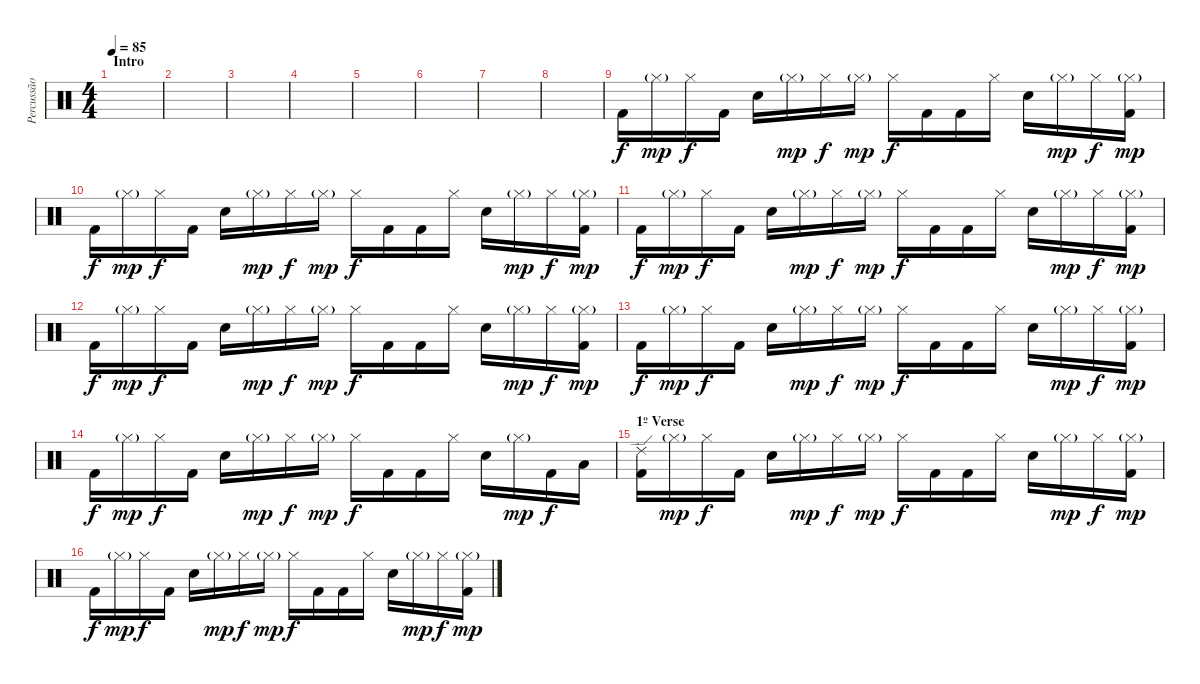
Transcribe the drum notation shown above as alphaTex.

\track ("Percussão" "Percussão") {instrument percussion}
\staff {score}
\articulation defaults
\ts (4 4)
\section ("" "Intro")
\tempo 85
\clef neutral
\ks c
|
|
|
|
|
|
|
|
"Kick (hit) 2".16 "Hi-Hat (closed)"{g}.16{dy mp} "Hi-Hat (closed)".16{dy f} "Kick (hit) 2".16 "Electric Snare (hit)".16 "Hi-Hat (closed)"{g}.16{dy mp} "Hi-Hat (closed)".16{dy f} "Hi-Hat (closed)"{g}.16{dy mp} "Hi-Hat (closed)".16{dy f} "Kick (hit) 2".16 "Kick (hit) 2".16 "Hi-Hat (closed)".16 "Electric Snare (hit)".16 "Hi-Hat (closed)"{g}.16{dy mp} "Hi-Hat (closed)".16{dy f} ("Hi-Hat (closed)"{g} "Kick (hit) 2").16{dy mp} |
"Kick (hit) 2".16{dy f} "Hi-Hat (closed)"{g}.16{dy mp} "Hi-Hat (closed)".16{dy f} "Kick (hit) 2".16 "Electric Snare (hit)".16 "Hi-Hat (closed)"{g}.16{dy mp} "Hi-Hat (closed)".16{dy f} "Hi-Hat (closed)"{g}.16{dy mp} "Hi-Hat (closed)".16{dy f} "Kick (hit) 2".16 "Kick (hit) 2".16 "Hi-Hat (closed)".16 "Electric Snare (hit)".16 "Hi-Hat (closed)"{g}.16{dy mp} "Hi-Hat (closed)".16{dy f} ("Hi-Hat (closed)"{g} "Kick (hit) 2").16{dy mp} |
"Kick (hit) 2".16{dy f} "Hi-Hat (closed)"{g}.16{dy mp} "Hi-Hat (closed)".16{dy f} "Kick (hit) 2".16 "Electric Snare (hit)".16 "Hi-Hat (closed)"{g}.16{dy mp} "Hi-Hat (closed)".16{dy f} "Hi-Hat (closed)"{g}.16{dy mp} "Hi-Hat (closed)".16{dy f} "Kick (hit) 2".16 "Kick (hit) 2".16 "Hi-Hat (closed)".16 "Electric Snare (hit)".16 "Hi-Hat (closed)"{g}.16{dy mp} "Hi-Hat (closed)".16{dy f} ("Hi-Hat (closed)"{g} "Kick (hit) 2").16{dy mp} |
"Kick (hit) 2".16{dy f} "Hi-Hat (closed)"{g}.16{dy mp} "Hi-Hat (closed)".16{dy f} "Kick (hit) 2".16 "Electric Snare (hit)".16 "Hi-Hat (closed)"{g}.16{dy mp} "Hi-Hat (closed)".16{dy f} "Hi-Hat (closed)"{g}.16{dy mp} "Hi-Hat (closed)".16{dy f} "Kick (hit) 2".16 "Kick (hit) 2".16 "Hi-Hat (closed)".16 "Electric Snare (hit)".16 "Hi-Hat (closed)"{g}.16{dy mp} "Hi-Hat (closed)".16{dy f} ("Hi-Hat (closed)"{g} "Kick (hit) 2").16{dy mp} |
"Kick (hit) 2".16{dy f} "Hi-Hat (closed)"{g}.16{dy mp} "Hi-Hat (closed)".16{dy f} "Kick (hit) 2".16 "Electric Snare (hit)".16 "Hi-Hat (closed)"{g}.16{dy mp} "Hi-Hat (closed)".16{dy f} "Hi-Hat (closed)"{g}.16{dy mp} "Hi-Hat (closed)".16{dy f} "Kick (hit) 2".16 "Kick (hit) 2".16 "Hi-Hat (closed)".16 "Electric Snare (hit)".16 "Hi-Hat (closed)"{g}.16{dy mp} "Hi-Hat (closed)".16{dy f} ("Hi-Hat (closed)"{g} "Kick (hit) 2").16{dy mp} |
"Kick (hit) 2".16{dy f} "Hi-Hat (closed)"{g}.16{dy mp} "Hi-Hat (closed)".16{dy f} "Kick (hit) 2".16 "Electric Snare (hit)".16 "Hi-Hat (closed)"{g}.16{dy mp} "Hi-Hat (closed)".16{dy f} "Hi-Hat (closed)"{g}.16{dy mp} "Hi-Hat (closed)".16{dy f} "Kick (hit) 2".16 "Kick (hit) 2".16 "Hi-Hat (closed)".16 "Electric Snare (hit)".16 "Hi-Hat (closed)"{g}.16{dy mp} "Kick (hit) 2".16{dy f} "Low Tom (hit)".16 |
\section ("" "1º Verse")
("Ride (edge) 2" "Kick (hit) 2").16 "Hi-Hat (closed)"{g}.16{dy mp} "Hi-Hat (closed)".16{dy f} "Kick (hit) 2".16 "Electric Snare (hit)".16 "Hi-Hat (closed)"{g}.16{dy mp} "Hi-Hat (closed)".16{dy f} "Hi-Hat (closed)"{g}.16{dy mp} "Hi-Hat (closed)".16{dy f} "Kick (hit) 2".16 "Kick (hit) 2".16 "Hi-Hat (closed)".16 "Electric Snare (hit)".16 "Hi-Hat (closed)"{g}.16{dy mp} "Hi-Hat (closed)".16{dy f} ("Hi-Hat (closed)"{g} "Kick (hit) 2").16{dy mp} |
"Kick (hit) 2".16{dy f} "Hi-Hat (closed)"{g}.16{dy mp} "Hi-Hat (closed)".16{dy f} "Kick (hit) 2".16 "Electric Snare (hit)".16 "Hi-Hat (closed)"{g}.16{dy mp} "Hi-Hat (closed)".16{dy f} "Hi-Hat (closed)"{g}.16{dy mp} "Hi-Hat (closed)".16{dy f} "Kick (hit) 2".16 "Kick (hit) 2".16 "Hi-Hat (closed)".16 "Electric Snare (hit)".16 "Hi-Hat (closed)"{g}.16{dy mp} "Hi-Hat (closed)".16{dy f} ("Hi-Hat (closed)"{g} "Kick (hit) 2").16{dy mp}
